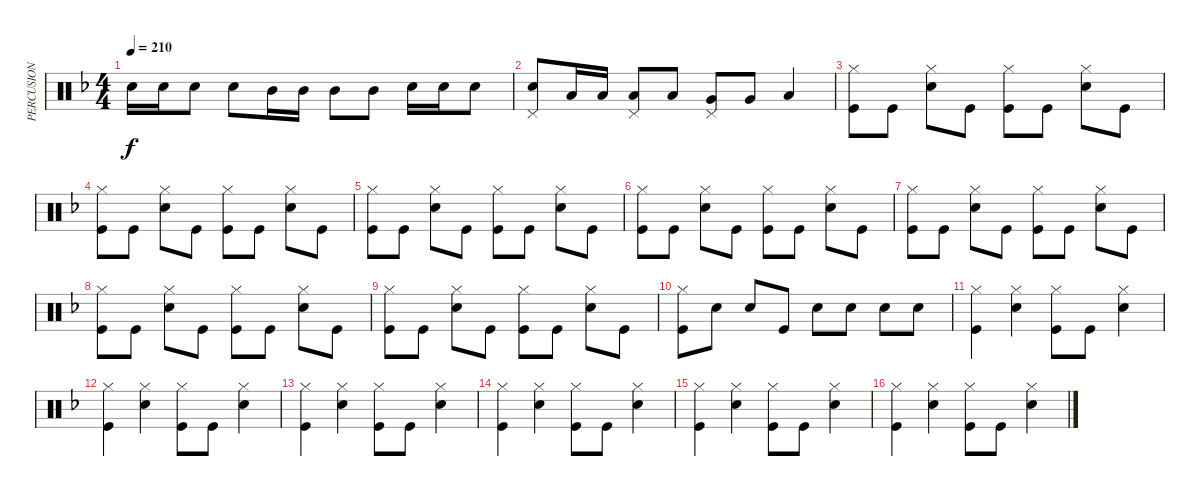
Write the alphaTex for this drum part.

\track ("PERCUSION" "PERCUSION") {instrument percussion}
\staff {score}
\articulation defaults
\ts (4 4)
\tempo 210
\clef neutral
\ks f "Snare (hit) 2".16{dy f} "Snare (hit) 2".16 "Snare (hit) 2".8 "Snare (hit) 2".8 "Mid Tom (hit)".16 "Mid Tom (hit)".16 "Mid Tom (hit)".8 "Mid Tom (hit)".8 "Snare (hit) 2".16 "Snare (hit) 2".16 "Snare (hit) 2".8
|
("Pedal Hi-Hat (hit)" "Snare (hit) 2").8 "Low Tom (hit)".16 "Low Tom (hit)".16 ("Pedal Hi-Hat (hit)" "Low Tom (hit)").8 "Low Tom (hit)".8 ("Pedal Hi-Hat (hit)" "Very Low Tom (hit)").8 "Very Low Tom (hit)".8 "Low Floor Tom (hit)".4 |
("Hi-Hat (closed)" "Kick (hit)").8 "Kick (hit)".8 ("Hi-Hat (closed)" "Snare (hit) 2").8 "Kick (hit)".8 ("Hi-Hat (closed)" "Kick (hit)").8 "Kick (hit)".8 ("Hi-Hat (closed)" "Snare (hit) 2").8 "Kick (hit)".8 |
("Hi-Hat (closed)" "Kick (hit)").8 "Kick (hit)".8 ("Hi-Hat (closed)" "Snare (hit) 2").8 "Kick (hit)".8 ("Hi-Hat (closed)" "Kick (hit)").8 "Kick (hit)".8 ("Hi-Hat (closed)" "Snare (hit) 2").8 "Kick (hit)".8 |
("Hi-Hat (closed)" "Kick (hit)").8 "Kick (hit)".8 ("Hi-Hat (closed)" "Snare (hit) 2").8 "Kick (hit)".8 ("Hi-Hat (closed)" "Kick (hit)").8 "Kick (hit)".8 ("Hi-Hat (closed)" "Snare (hit) 2").8 "Kick (hit)".8 |
("Hi-Hat (closed)" "Kick (hit)").8 "Kick (hit)".8 ("Hi-Hat (closed)" "Snare (hit) 2").8 "Kick (hit)".8 ("Hi-Hat (closed)" "Kick (hit)").8 "Kick (hit)".8 ("Hi-Hat (closed)" "Snare (hit) 2").8 "Kick (hit)".8 |
("Hi-Hat (closed)" "Kick (hit)").8 "Kick (hit)".8 ("Hi-Hat (closed)" "Snare (hit) 2").8 "Kick (hit)".8 ("Hi-Hat (closed)" "Kick (hit)").8 "Kick (hit)".8 ("Hi-Hat (closed)" "Snare (hit) 2").8 "Kick (hit)".8 |
("Hi-Hat (closed)" "Kick (hit)").8 "Kick (hit)".8 ("Hi-Hat (closed)" "Snare (hit) 2").8 "Kick (hit)".8 ("Hi-Hat (closed)" "Kick (hit)").8 "Kick (hit)".8 ("Hi-Hat (closed)" "Snare (hit) 2").8 "Kick (hit)".8 |
("Hi-Hat (closed)" "Kick (hit)").8 "Kick (hit)".8 ("Hi-Hat (closed)" "Snare (hit) 2").8 "Kick (hit)".8 ("Hi-Hat (closed)" "Kick (hit)").8 "Kick (hit)".8 ("Hi-Hat (closed)" "Snare (hit) 2").8 "Kick (hit)".8 |
("Hi-Hat (closed)" "Kick (hit)").8 "Snare (hit) 2".8 "Snare (hit) 2".8 "Kick (hit)".8 "Snare (hit) 2".8 "Snare (hit) 2".8 "Snare (hit) 2".8 "Snare (hit) 2".8 |
("Hi-Hat (closed)" "Kick (hit)").4 ("Hi-Hat (closed)" "Snare (hit) 2").4 ("Hi-Hat (closed)" "Kick (hit)").8 "Kick (hit)".8 ("Hi-Hat (closed)" "Snare (hit) 2").4 |
("Hi-Hat (closed)" "Kick (hit)").4 ("Hi-Hat (closed)" "Snare (hit) 2").4 ("Hi-Hat (closed)" "Kick (hit)").8 "Kick (hit)".8 ("Hi-Hat (closed)" "Snare (hit) 2").4 |
("Hi-Hat (closed)" "Kick (hit)").4 ("Hi-Hat (closed)" "Snare (hit) 2").4 ("Hi-Hat (closed)" "Kick (hit)").8 "Kick (hit)".8 ("Hi-Hat (closed)" "Snare (hit) 2").4 |
("Hi-Hat (closed)" "Kick (hit)").4 ("Hi-Hat (closed)" "Snare (hit) 2").4 ("Hi-Hat (closed)" "Kick (hit)").8 "Kick (hit)".8 ("Hi-Hat (closed)" "Snare (hit) 2").4 |
("Hi-Hat (closed)" "Kick (hit)").4 ("Hi-Hat (closed)" "Snare (hit) 2").4 ("Hi-Hat (closed)" "Kick (hit)").8 "Kick (hit)".8 ("Hi-Hat (closed)" "Snare (hit) 2").4 |
("Hi-Hat (closed)" "Kick (hit)").4 ("Hi-Hat (closed)" "Snare (hit) 2").4 ("Hi-Hat (closed)" "Kick (hit)").8 "Kick (hit)".8 ("Hi-Hat (closed)" "Snare (hit) 2").4
